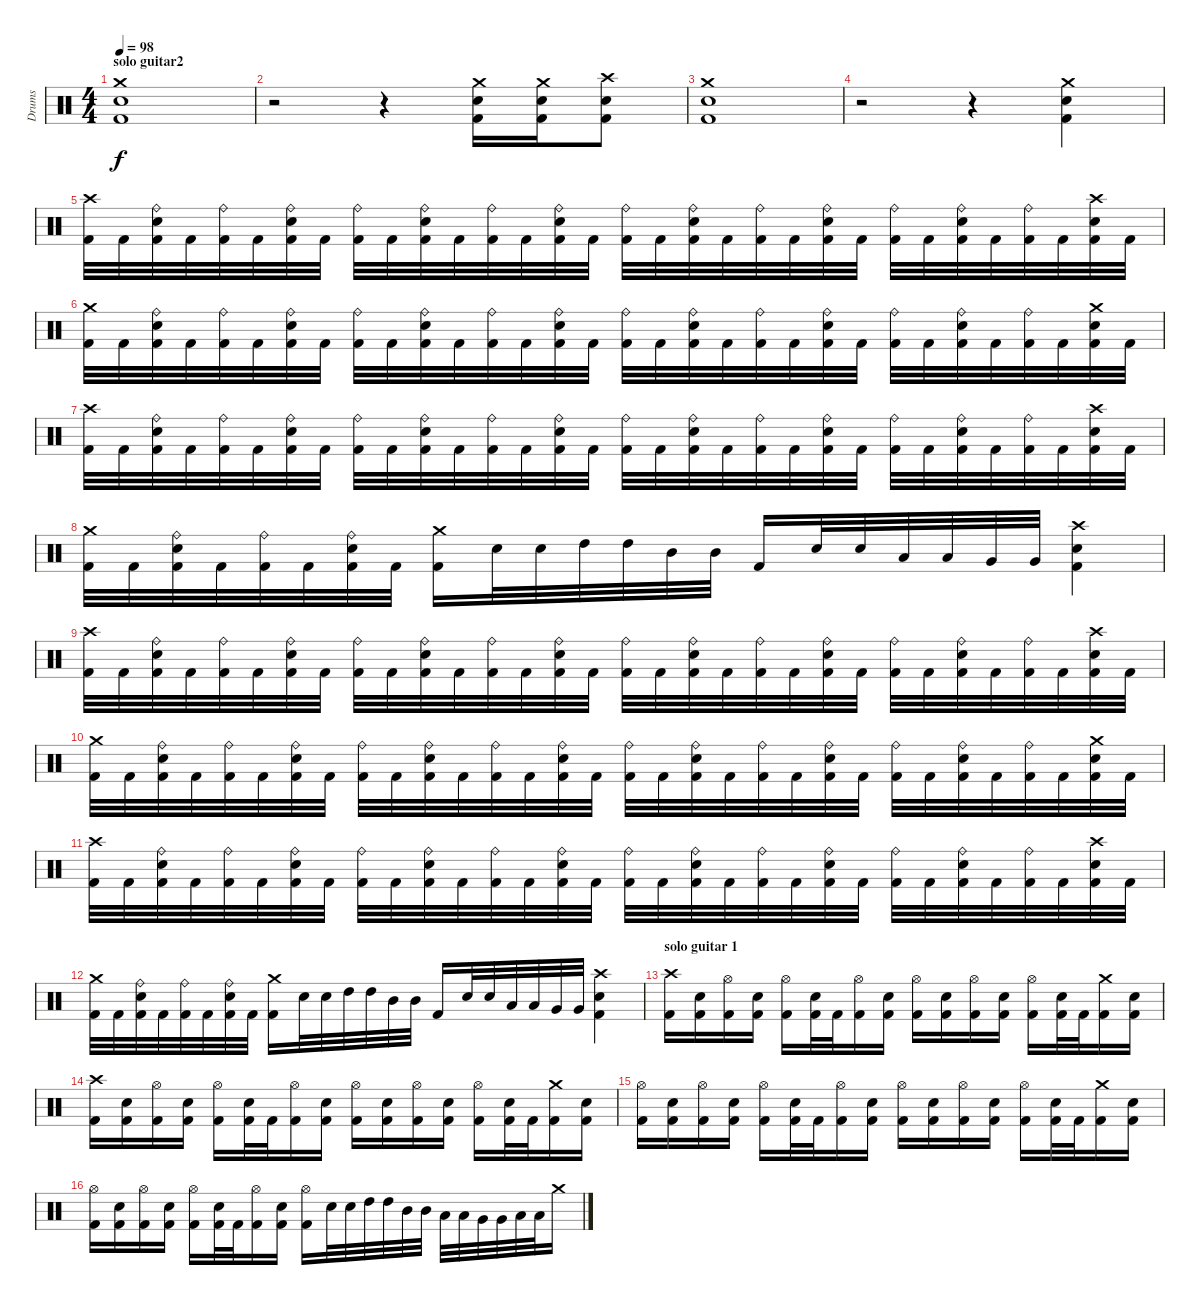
\track ("Drums" "Drums") {instrument percussion}
\staff {score}
\articulation defaults
\ts (4 4)
\section ("" "solo guitar2")
\tempo 98
\clef neutral
\ks c
("Crash medium (hit)" "Electric Snare (hit)" "Kick (hit) 2").1{dy f} |
r.2 r.4 ("Crash medium (hit)" "Electric Snare (hit)" "Kick (hit) 2").16 ("Crash medium (hit)" "Electric Snare (hit)" "Kick (hit) 2").16 ("Crash high (hit)" "Electric Snare (hit)" "Kick (hit) 2").8 |
("Crash medium (hit)" "Electric Snare (hit)" "Kick (hit) 2").1 |
r.2 r.4 ("Crash medium (hit)" "Electric Snare (hit)" "Kick (hit) 2").4 |
("Crash high (hit)" "Kick (hit) 2").32 "Kick (hit) 2".32 ("Ride (bell)" "Electric Snare (hit)" "Kick (hit) 2").32 "Kick (hit) 2".32 ("Ride (bell)" "Kick (hit) 2").32 "Kick (hit) 2".32 ("Ride (bell)" "Electric Snare (hit)" "Kick (hit) 2").32 "Kick (hit) 2".32 ("Ride (bell)" "Kick (hit) 2").32 "Kick (hit) 2".32 ("Ride (bell)" "Electric Snare (hit)" "Kick (hit) 2").32 "Kick (hit) 2".32 ("Ride (bell)" "Kick (hit) 2").32 "Kick (hit) 2".32 ("Ride (bell)" "Electric Snare (hit)" "Kick (hit) 2").32 "Kick (hit) 2".32 ("Ride (bell)" "Kick (hit) 2").32 "Kick (hit) 2".32 ("Ride (bell)" "Electric Snare (hit)" "Kick (hit) 2").32 "Kick (hit) 2".32 ("Ride (bell)" "Kick (hit) 2").32 "Kick (hit) 2".32 ("Ride (bell)" "Electric Snare (hit)" "Kick (hit) 2").32 "Kick (hit) 2".32 ("Ride (bell)" "Kick (hit) 2").32 "Kick (hit) 2".32 ("Ride (bell)" "Electric Snare (hit)" "Kick (hit) 2").32 "Kick (hit) 2".32 ("Ride (bell)" "Kick (hit) 2").32 "Kick (hit) 2".32 ("Crash high (hit)" "Electric Snare (hit)" "Kick (hit) 2").32 "Kick (hit) 2".32 |
("Crash medium (hit)" "Kick (hit) 2").32 "Kick (hit) 2".32 ("Ride (bell)" "Electric Snare (hit)" "Kick (hit) 2").32 "Kick (hit) 2".32 ("Ride (bell)" "Kick (hit) 2").32 "Kick (hit) 2".32 ("Ride (bell)" "Electric Snare (hit)" "Kick (hit) 2").32 "Kick (hit) 2".32 ("Ride (bell)" "Kick (hit) 2").32 "Kick (hit) 2".32 ("Ride (bell)" "Electric Snare (hit)" "Kick (hit) 2").32 "Kick (hit) 2".32 ("Ride (bell)" "Kick (hit) 2").32 "Kick (hit) 2".32 ("Ride (bell)" "Electric Snare (hit)" "Kick (hit) 2").32 "Kick (hit) 2".32 ("Ride (bell)" "Kick (hit) 2").32 "Kick (hit) 2".32 ("Ride (bell)" "Electric Snare (hit)" "Kick (hit) 2").32 "Kick (hit) 2".32 ("Ride (bell)" "Kick (hit) 2").32 "Kick (hit) 2".32 ("Ride (bell)" "Electric Snare (hit)" "Kick (hit) 2").32 "Kick (hit) 2".32 ("Ride (bell)" "Kick (hit) 2").32 "Kick (hit) 2".32 ("Ride (bell)" "Electric Snare (hit)" "Kick (hit) 2").32 "Kick (hit) 2".32 ("Ride (bell)" "Kick (hit) 2").32 "Kick (hit) 2".32 ("Crash medium (hit)" "Electric Snare (hit)" "Kick (hit) 2").32 "Kick (hit) 2".32 |
("Crash high (hit)" "Kick (hit) 2").32 "Kick (hit) 2".32 ("Ride (bell)" "Electric Snare (hit)" "Kick (hit) 2").32 "Kick (hit) 2".32 ("Ride (bell)" "Kick (hit) 2").32 "Kick (hit) 2".32 ("Ride (bell)" "Electric Snare (hit)" "Kick (hit) 2").32 "Kick (hit) 2".32 ("Ride (bell)" "Kick (hit) 2").32 "Kick (hit) 2".32 ("Ride (bell)" "Electric Snare (hit)" "Kick (hit) 2").32 "Kick (hit) 2".32 ("Ride (bell)" "Kick (hit) 2").32 "Kick (hit) 2".32 ("Ride (bell)" "Electric Snare (hit)" "Kick (hit) 2").32 "Kick (hit) 2".32 ("Ride (bell)" "Kick (hit) 2").32 "Kick (hit) 2".32 ("Ride (bell)" "Electric Snare (hit)" "Kick (hit) 2").32 "Kick (hit) 2".32 ("Ride (bell)" "Kick (hit) 2").32 "Kick (hit) 2".32 ("Ride (bell)" "Electric Snare (hit)" "Kick (hit) 2").32 "Kick (hit) 2".32 ("Ride (bell)" "Kick (hit) 2").32 "Kick (hit) 2".32 ("Ride (bell)" "Electric Snare (hit)" "Kick (hit) 2").32 "Kick (hit) 2".32 ("Ride (bell)" "Kick (hit) 2").32 "Kick (hit) 2".32 ("Crash high (hit)" "Electric Snare (hit)" "Kick (hit) 2").32 "Kick (hit) 2".32 |
("Crash medium (hit)" "Kick (hit) 2").32 "Kick (hit) 2".32 ("Ride (bell)" "Electric Snare (hit)" "Kick (hit) 2").32 "Kick (hit) 2".32 ("Ride (bell)" "Kick (hit) 2").32 "Kick (hit) 2".32 ("Ride (bell)" "Electric Snare (hit)" "Kick (hit) 2").32 "Kick (hit) 2".32 ("Crash medium (hit)" "Kick (hit) 2").16 "Electric Snare (hit)".32 "Electric Snare (hit)".32 "High Tom (hit)".32 "High Tom (hit)".32 "Mid Tom (hit)".32 "Mid Tom (hit)".32 "Kick (hit) 2".16 "Electric Snare (hit)".32 "Electric Snare (hit)".32 "Low Tom (hit)".32 "Low Tom (hit)".32 "Very Low Tom (hit)".32 "Very Low Tom (hit)".32 ("Crash high (hit)" "Electric Snare (hit)" "Kick (hit) 2").4 |
("Crash high (hit)" "Kick (hit) 2").32 "Kick (hit) 2".32 ("Ride (bell)" "Electric Snare (hit)" "Kick (hit) 2").32 "Kick (hit) 2".32 ("Ride (bell)" "Kick (hit) 2").32 "Kick (hit) 2".32 ("Ride (bell)" "Electric Snare (hit)" "Kick (hit) 2").32 "Kick (hit) 2".32 ("Ride (bell)" "Kick (hit) 2").32 "Kick (hit) 2".32 ("Ride (bell)" "Electric Snare (hit)" "Kick (hit) 2").32 "Kick (hit) 2".32 ("Ride (bell)" "Kick (hit) 2").32 "Kick (hit) 2".32 ("Ride (bell)" "Electric Snare (hit)" "Kick (hit) 2").32 "Kick (hit) 2".32 ("Ride (bell)" "Kick (hit) 2").32 "Kick (hit) 2".32 ("Ride (bell)" "Electric Snare (hit)" "Kick (hit) 2").32 "Kick (hit) 2".32 ("Ride (bell)" "Kick (hit) 2").32 "Kick (hit) 2".32 ("Ride (bell)" "Electric Snare (hit)" "Kick (hit) 2").32 "Kick (hit) 2".32 ("Ride (bell)" "Kick (hit) 2").32 "Kick (hit) 2".32 ("Ride (bell)" "Electric Snare (hit)" "Kick (hit) 2").32 "Kick (hit) 2".32 ("Ride (bell)" "Kick (hit) 2").32 "Kick (hit) 2".32 ("Crash high (hit)" "Electric Snare (hit)" "Kick (hit) 2").32 "Kick (hit) 2".32 |
("Crash medium (hit)" "Kick (hit) 2").32 "Kick (hit) 2".32 ("Ride (bell)" "Electric Snare (hit)" "Kick (hit) 2").32 "Kick (hit) 2".32 ("Ride (bell)" "Kick (hit) 2").32 "Kick (hit) 2".32 ("Ride (bell)" "Electric Snare (hit)" "Kick (hit) 2").32 "Kick (hit) 2".32 ("Ride (bell)" "Kick (hit) 2").32 "Kick (hit) 2".32 ("Ride (bell)" "Electric Snare (hit)" "Kick (hit) 2").32 "Kick (hit) 2".32 ("Ride (bell)" "Kick (hit) 2").32 "Kick (hit) 2".32 ("Ride (bell)" "Electric Snare (hit)" "Kick (hit) 2").32 "Kick (hit) 2".32 ("Ride (bell)" "Kick (hit) 2").32 "Kick (hit) 2".32 ("Ride (bell)" "Electric Snare (hit)" "Kick (hit) 2").32 "Kick (hit) 2".32 ("Ride (bell)" "Kick (hit) 2").32 "Kick (hit) 2".32 ("Ride (bell)" "Electric Snare (hit)" "Kick (hit) 2").32 "Kick (hit) 2".32 ("Ride (bell)" "Kick (hit) 2").32 "Kick (hit) 2".32 ("Ride (bell)" "Electric Snare (hit)" "Kick (hit) 2").32 "Kick (hit) 2".32 ("Ride (bell)" "Kick (hit) 2").32 "Kick (hit) 2".32 ("Crash medium (hit)" "Electric Snare (hit)" "Kick (hit) 2").32 "Kick (hit) 2".32 |
("Crash high (hit)" "Kick (hit) 2").32 "Kick (hit) 2".32 ("Ride (bell)" "Electric Snare (hit)" "Kick (hit) 2").32 "Kick (hit) 2".32 ("Ride (bell)" "Kick (hit) 2").32 "Kick (hit) 2".32 ("Ride (bell)" "Electric Snare (hit)" "Kick (hit) 2").32 "Kick (hit) 2".32 ("Ride (bell)" "Kick (hit) 2").32 "Kick (hit) 2".32 ("Ride (bell)" "Electric Snare (hit)" "Kick (hit) 2").32 "Kick (hit) 2".32 ("Ride (bell)" "Kick (hit) 2").32 "Kick (hit) 2".32 ("Ride (bell)" "Electric Snare (hit)" "Kick (hit) 2").32 "Kick (hit) 2".32 ("Ride (bell)" "Kick (hit) 2").32 "Kick (hit) 2".32 ("Ride (bell)" "Electric Snare (hit)" "Kick (hit) 2").32 "Kick (hit) 2".32 ("Ride (bell)" "Kick (hit) 2").32 "Kick (hit) 2".32 ("Ride (bell)" "Electric Snare (hit)" "Kick (hit) 2").32 "Kick (hit) 2".32 ("Ride (bell)" "Kick (hit) 2").32 "Kick (hit) 2".32 ("Ride (bell)" "Electric Snare (hit)" "Kick (hit) 2").32 "Kick (hit) 2".32 ("Ride (bell)" "Kick (hit) 2").32 "Kick (hit) 2".32 ("Crash high (hit)" "Electric Snare (hit)" "Kick (hit) 2").32 "Kick (hit) 2".32 |
("Crash medium (hit)" "Kick (hit) 2").32 "Kick (hit) 2".32 ("Ride (bell)" "Electric Snare (hit)" "Kick (hit) 2").32 "Kick (hit) 2".32 ("Ride (bell)" "Kick (hit) 2").32 "Kick (hit) 2".32 ("Ride (bell)" "Electric Snare (hit)" "Kick (hit) 2").32 "Kick (hit) 2".32 ("Crash medium (hit)" "Kick (hit) 2").16 "Electric Snare (hit)".32 "Electric Snare (hit)".32 "High Tom (hit)".32 "High Tom (hit)".32 "Mid Tom (hit)".32 "Mid Tom (hit)".32 "Kick (hit) 2".16 "Electric Snare (hit)".32 "Electric Snare (hit)".32 "Low Tom (hit)".32 "Low Tom (hit)".32 "Very Low Tom (hit)".32 "Very Low Tom (hit)".32 ("Crash high (hit)" "Electric Snare (hit)" "Kick (hit) 2").4 |
\section ("" "solo guitar 1")
("Crash high (hit)" "Kick (hit) 2").16 ("Electric Snare (hit)" "Kick (hit) 2").16 ("Hi-Hat (open)" "Kick (hit) 2").16 ("Electric Snare (hit)" "Kick (hit) 2").16 ("Hi-Hat (open)" "Kick (hit) 2").16 ("Electric Snare (hit)" "Kick (hit) 2").32 "Kick (hit) 2".32 ("Hi-Hat (open)" "Kick (hit) 2").16 ("Electric Snare (hit)" "Kick (hit) 2").16 ("Hi-Hat (open)" "Kick (hit) 2").16 ("Electric Snare (hit)" "Kick (hit) 2").16 ("Hi-Hat (open)" "Kick (hit) 2").16 ("Electric Snare (hit)" "Kick (hit) 2").16 ("Hi-Hat (open)" "Kick (hit) 2").16 ("Electric Snare (hit)" "Kick (hit) 2").32 "Kick (hit) 2".32 ("Crash medium (hit)" "Kick (hit) 2").16 ("Electric Snare (hit)" "Kick (hit) 2").16 |
("Crash high (hit)" "Kick (hit) 2").16 ("Electric Snare (hit)" "Kick (hit) 2").16 ("Hi-Hat (open)" "Kick (hit) 2").16 ("Electric Snare (hit)" "Kick (hit) 2").16 ("Hi-Hat (open)" "Kick (hit) 2").16 ("Electric Snare (hit)" "Kick (hit) 2").32 "Kick (hit) 2".32 ("Hi-Hat (open)" "Kick (hit) 2").16 ("Electric Snare (hit)" "Kick (hit) 2").16 ("Hi-Hat (open)" "Kick (hit) 2").16 ("Electric Snare (hit)" "Kick (hit) 2").16 ("Hi-Hat (open)" "Kick (hit) 2").16 ("Electric Snare (hit)" "Kick (hit) 2").16 ("Hi-Hat (open)" "Kick (hit) 2").16 ("Electric Snare (hit)" "Kick (hit) 2").32 "Kick (hit) 2".32 ("Crash medium (hit)" "Kick (hit) 2").16 ("Electric Snare (hit)" "Kick (hit) 2").16 |
("Hi-Hat (open)" "Kick (hit) 2").16 ("Electric Snare (hit)" "Kick (hit) 2").16 ("Hi-Hat (open)" "Kick (hit) 2").16 ("Electric Snare (hit)" "Kick (hit) 2").16 ("Hi-Hat (open)" "Kick (hit) 2").16 ("Electric Snare (hit)" "Kick (hit) 2").32 "Kick (hit) 2".32 ("Hi-Hat (open)" "Kick (hit) 2").16 ("Electric Snare (hit)" "Kick (hit) 2").16 ("Hi-Hat (open)" "Kick (hit) 2").16 ("Electric Snare (hit)" "Kick (hit) 2").16 ("Hi-Hat (open)" "Kick (hit) 2").16 ("Electric Snare (hit)" "Kick (hit) 2").16 ("Hi-Hat (open)" "Kick (hit) 2").16 ("Electric Snare (hit)" "Kick (hit) 2").32 "Kick (hit) 2".32 ("Crash medium (hit)" "Kick (hit) 2").16 ("Electric Snare (hit)" "Kick (hit) 2").16 |
("Hi-Hat (open)" "Kick (hit) 2").16 ("Electric Snare (hit)" "Kick (hit) 2").16 ("Hi-Hat (open)" "Kick (hit) 2").16 ("Electric Snare (hit)" "Kick (hit) 2").16 ("Hi-Hat (open)" "Kick (hit) 2").16 ("Electric Snare (hit)" "Kick (hit) 2").32 "Kick (hit) 2".32 ("Hi-Hat (open)" "Kick (hit) 2").16 ("Electric Snare (hit)" "Kick (hit) 2").16 ("Hi-Hat (open)" "Kick (hit) 2").16 "Electric Snare (hit)".32 "Electric Snare (hit)".32 "High Tom (hit)".32 "High Tom (hit)".32 "Mid Tom (hit)".32 "Mid Tom (hit)".32 "Low Tom (hit)".32 "Low Tom (hit)".32 "Very Low Tom (hit)".32 "Very Low Tom (hit)".32 "Low Floor Tom (hit)".32 "Low Floor Tom (hit)".32 "Crash medium (hit)".16
